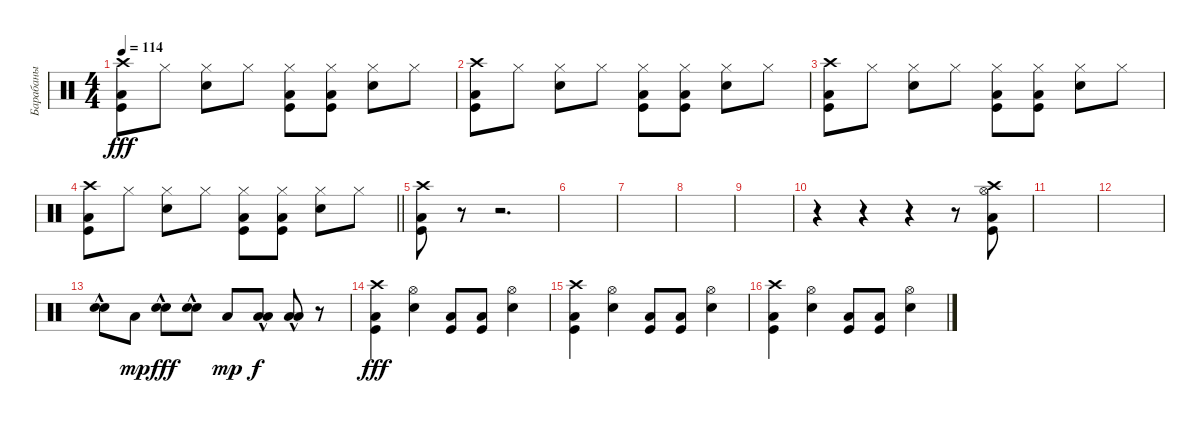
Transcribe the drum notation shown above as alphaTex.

\track ("Барабаны" "Барабаны") {instrument percussion}
\staff {score}
\articulation defaults
\ts (4 4)
\tempo 114
\clef neutral
\ks c
("Low Floor Tom (hit)" "Kick (hit)" "Crash high (hit)").8{dy fff} "Hi-Hat (closed)".8 ("Electric Snare (hit)" "Hi-Hat (closed)").8 "Hi-Hat (closed)".8 ("Low Floor Tom (hit)" "Kick (hit)" "Hi-Hat (closed)").8 ("Low Floor Tom (hit)" "Kick (hit)" "Hi-Hat (closed)").8 ("Electric Snare (hit)" "Hi-Hat (closed)").8 "Hi-Hat (closed)".8 |
("Low Floor Tom (hit)" "Kick (hit)" "Crash high (hit)").8 "Hi-Hat (closed)".8 ("Electric Snare (hit)" "Hi-Hat (closed)").8 "Hi-Hat (closed)".8 ("Low Floor Tom (hit)" "Kick (hit)" "Hi-Hat (closed)").8 ("Low Floor Tom (hit)" "Kick (hit)" "Hi-Hat (closed)").8 ("Electric Snare (hit)" "Hi-Hat (closed)").8 "Hi-Hat (closed)".8 |
("Low Floor Tom (hit)" "Kick (hit)" "Crash high (hit)").8 "Hi-Hat (closed)".8 ("Electric Snare (hit)" "Hi-Hat (closed)").8 "Hi-Hat (closed)".8 ("Low Floor Tom (hit)" "Kick (hit)" "Hi-Hat (closed)").8 ("Low Floor Tom (hit)" "Kick (hit)" "Hi-Hat (closed)").8 ("Electric Snare (hit)" "Hi-Hat (closed)").8 "Hi-Hat (closed)".8 |
\barLineRight lightlight
("Low Floor Tom (hit)" "Kick (hit)" "Crash high (hit)").8 "Hi-Hat (closed)".8 ("Electric Snare (hit)" "Hi-Hat (closed)").8 "Hi-Hat (closed)".8 ("Low Floor Tom (hit)" "Kick (hit)" "Hi-Hat (closed)").8 ("Low Floor Tom (hit)" "Kick (hit)" "Hi-Hat (closed)").8 ("Electric Snare (hit)" "Hi-Hat (closed)").8 "Hi-Hat (closed)".8 |
("Low Floor Tom (hit)" "Kick (hit)" "Crash high (hit)").8 r.8 r.2{d} |
|
|
|
|
r.4 r.4 r.4 r.8 ("Low Floor Tom (hit)" "Kick (hit)" "Crash high (hit)" "Hi-Hat (open)").8 |
|
|
("Electric Snare (hit)"{hac} "Electric Snare (hit)"{hac}).8 "Low Floor Tom (hit)".8{dy mp} ("Electric Snare (hit)"{hac} "Electric Snare (hit)"{hac}).8{dy fff} ("Electric Snare (hit)"{hac} "Electric Snare (hit)"{hac}).8 "Low Floor Tom (hit)".8{dy mp} ("Low Tom (hit)"{hac} "Low Tom (hit)"{hac}).8{dy f} ("Low Tom (hit)"{hac} "Low Tom (hit)"{hac}).8 r.8 |
("Low Floor Tom (hit)" "Kick (hit)" "Crash high (hit)").4{dy fff} ("Electric Snare (hit)" "Hi-Hat (open)").4 ("Low Floor Tom (hit)" "Kick (hit)").8 ("Low Floor Tom (hit)" "Kick (hit)").8 ("Electric Snare (hit)" "Hi-Hat (open)").4 |
("Low Floor Tom (hit)" "Kick (hit)" "Crash high (hit)").4 ("Electric Snare (hit)" "Hi-Hat (open)").4 ("Low Floor Tom (hit)" "Kick (hit)").8 ("Low Floor Tom (hit)" "Kick (hit)").8 ("Electric Snare (hit)" "Hi-Hat (open)").4 |
("Low Floor Tom (hit)" "Kick (hit)" "Crash high (hit)").4 ("Electric Snare (hit)" "Hi-Hat (open)").4 ("Low Floor Tom (hit)" "Kick (hit)").8 ("Low Floor Tom (hit)" "Kick (hit)").8 ("Electric Snare (hit)" "Hi-Hat (open)").4
